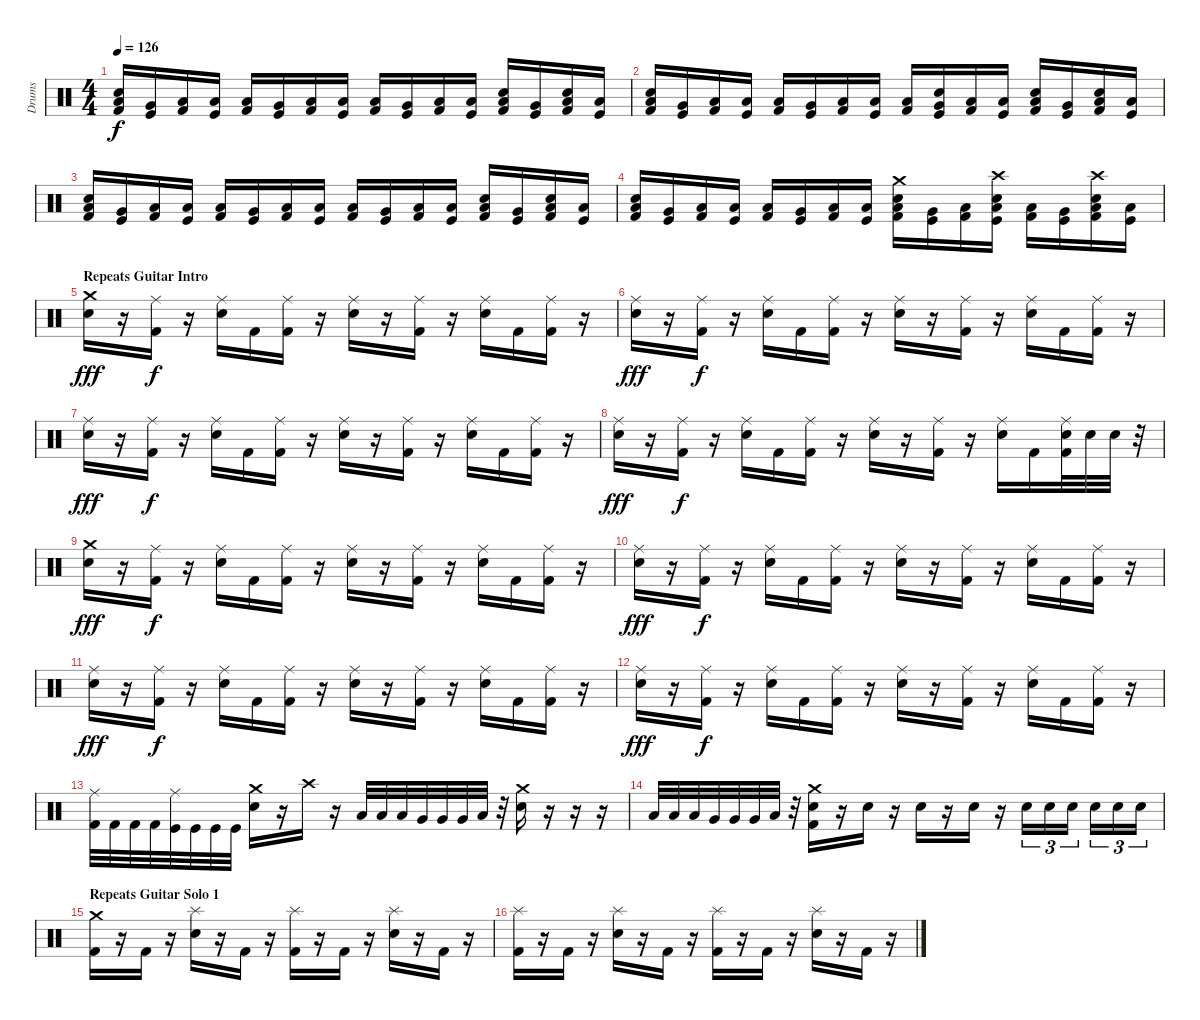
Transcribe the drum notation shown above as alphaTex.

\track ("Drums" "Drums") {instrument percussion}
\staff {score}
\articulation defaults
\ts (4 4)
\tempo 126
\clef neutral
\ks c
("Low Tom (hit)" "Snare (hit) 2" "Kick (hit) 2").16{dy f} ("Very Low Tom (hit)" "Kick (hit)").16 ("Low Floor Tom (hit)" "Kick (hit) 2").16 ("Low Floor Tom (hit)" "Kick (hit)").16 ("Low Tom (hit)" "Kick (hit) 2").16 ("Very Low Tom (hit)" "Kick (hit)").16 ("Low Floor Tom (hit)" "Kick (hit) 2").16 ("Low Floor Tom (hit)" "Kick (hit)").16 ("Low Tom (hit)" "Kick (hit) 2").16 ("Very Low Tom (hit)" "Kick (hit)").16 ("Low Floor Tom (hit)" "Kick (hit) 2").16 ("Low Floor Tom (hit)" "Kick (hit)").16 ("Low Tom (hit)" "Snare (hit) 2" "Kick (hit) 2").16 ("Very Low Tom (hit)" "Kick (hit)").16 ("Low Floor Tom (hit)" "Snare (hit) 2" "Kick (hit) 2").16 ("Low Floor Tom (hit)" "Kick (hit)").16 |
("Low Tom (hit)" "Snare (hit) 2" "Kick (hit) 2").16 ("Very Low Tom (hit)" "Kick (hit)").16 ("Low Floor Tom (hit)" "Kick (hit) 2").16 ("Low Floor Tom (hit)" "Kick (hit)").16 ("Low Tom (hit)" "Kick (hit) 2").16 ("Very Low Tom (hit)" "Kick (hit)").16 ("Low Floor Tom (hit)" "Kick (hit) 2").16 ("Low Floor Tom (hit)" "Kick (hit)").16 ("Low Tom (hit)" "Kick (hit) 2").16 ("Very Low Tom (hit)" "Snare (hit) 2" "Kick (hit)").16 ("Low Floor Tom (hit)" "Kick (hit) 2").16 ("Low Floor Tom (hit)" "Kick (hit)").16 ("Low Tom (hit)" "Snare (hit) 2" "Kick (hit) 2").16 ("Very Low Tom (hit)" "Kick (hit)").16 ("Low Floor Tom (hit)" "Snare (hit) 2" "Kick (hit) 2").16 ("Low Floor Tom (hit)" "Kick (hit)").16 |
("Low Tom (hit)" "Snare (hit) 2" "Kick (hit) 2").16 ("Very Low Tom (hit)" "Kick (hit)").16 ("Low Floor Tom (hit)" "Kick (hit) 2").16 ("Low Floor Tom (hit)" "Kick (hit)").16 ("Low Tom (hit)" "Kick (hit) 2").16 ("Very Low Tom (hit)" "Kick (hit)").16 ("Low Floor Tom (hit)" "Kick (hit) 2").16 ("Low Floor Tom (hit)" "Kick (hit)").16 ("Low Tom (hit)" "Kick (hit) 2").16 ("Very Low Tom (hit)" "Kick (hit)").16 ("Low Floor Tom (hit)" "Kick (hit) 2").16 ("Low Floor Tom (hit)" "Kick (hit)").16 ("Low Tom (hit)" "Snare (hit) 2" "Kick (hit) 2").16 ("Very Low Tom (hit)" "Kick (hit)").16 ("Low Floor Tom (hit)" "Snare (hit) 2" "Kick (hit) 2").16 ("Low Floor Tom (hit)" "Kick (hit)").16 |
("Low Tom (hit)" "Snare (hit) 2" "Kick (hit) 2").16 ("Very Low Tom (hit)" "Kick (hit)").16 ("Low Floor Tom (hit)" "Kick (hit) 2").16 ("Low Floor Tom (hit)" "Kick (hit)").16 ("Low Tom (hit)" "Kick (hit) 2").16 ("Very Low Tom (hit)" "Kick (hit)").16 ("Low Floor Tom (hit)" "Kick (hit) 2").16 ("Low Floor Tom (hit)" "Kick (hit)").16 ("Crash medium (hit)" "Low Tom (hit)" "Snare (hit) 2" "Kick (hit) 2").16 ("Very Low Tom (hit)" "Kick (hit)").16 ("Low Floor Tom (hit)" "Kick (hit) 2").16 ("Crash high (hit)" "Low Floor Tom (hit)" "Snare (hit) 2" "Kick (hit)").16 ("Low Tom (hit)" "Kick (hit) 2").16 ("Very Low Tom (hit)" "Kick (hit)").16 ("Crash high (hit)" "Low Floor Tom (hit)" "Snare (hit) 2" "Kick (hit) 2").16 ("Low Floor Tom (hit)" "Kick (hit)").16 |
\section ("" "Repeats Guitar Intro")
("Crash medium (hit)" "Snare (hit) 2").16{dy fff} r.16 ("Ride (middle)" "Kick (hit) 2").16{dy f} r.16 ("Ride (middle)" "Snare (hit) 2").16 "Kick (hit) 2".16 ("Ride (middle)" "Kick (hit) 2").16 r.16 ("Ride (middle)" "Snare (hit) 2").16 r.16 ("Ride (middle)" "Kick (hit) 2").16 r.16 ("Ride (middle)" "Snare (hit) 2").16 "Kick (hit) 2".16 ("Ride (middle)" "Kick (hit) 2").16 r.16 |
("Ride (middle)" "Snare (hit) 2").16{dy fff} r.16 ("Ride (middle)" "Kick (hit) 2").16{dy f} r.16 ("Ride (middle)" "Snare (hit) 2").16 "Kick (hit) 2".16 ("Ride (middle)" "Kick (hit) 2").16 r.16 ("Ride (middle)" "Snare (hit) 2").16 r.16 ("Ride (middle)" "Kick (hit) 2").16 r.16 ("Ride (middle)" "Snare (hit) 2").16 "Kick (hit) 2".16 ("Ride (middle)" "Kick (hit) 2").16 r.16 |
("Ride (middle)" "Snare (hit) 2").16{dy fff} r.16 ("Ride (middle)" "Kick (hit) 2").16{dy f} r.16 ("Ride (middle)" "Snare (hit) 2").16 "Kick (hit) 2".16 ("Ride (middle)" "Kick (hit) 2").16 r.16 ("Ride (middle)" "Snare (hit) 2").16 r.16 ("Ride (middle)" "Kick (hit) 2").16 r.16 ("Ride (middle)" "Snare (hit) 2").16 "Kick (hit) 2".16 ("Ride (middle)" "Kick (hit) 2").16 r.16 |
("Ride (middle)" "Snare (hit) 2").16{dy fff} r.16 ("Ride (middle)" "Kick (hit) 2").16{dy f} r.16 ("Ride (middle)" "Snare (hit) 2").16 "Kick (hit) 2".16 ("Ride (middle)" "Kick (hit) 2").16 r.16 ("Ride (middle)" "Snare (hit) 2").16 r.16 ("Ride (middle)" "Kick (hit) 2").16 r.16 ("Ride (middle)" "Snare (hit) 2").16 "Kick (hit) 2".16 ("Ride (middle)" "Snare (hit) 2" "Kick (hit) 2").32 "Snare (hit) 2".32 "Snare (hit) 2".32 r.32 |
("Crash medium (hit)" "Snare (hit) 2").16{dy fff} r.16 ("Ride (middle)" "Kick (hit) 2").16{dy f} r.16 ("Ride (middle)" "Snare (hit) 2").16 "Kick (hit) 2".16 ("Ride (middle)" "Kick (hit) 2").16 r.16 ("Ride (middle)" "Snare (hit) 2").16 r.16 ("Ride (middle)" "Kick (hit) 2").16 r.16 ("Ride (middle)" "Snare (hit) 2").16 "Kick (hit) 2".16 ("Ride (middle)" "Kick (hit) 2").16 r.16 |
("Ride (middle)" "Snare (hit) 2").16{dy fff} r.16 ("Ride (middle)" "Kick (hit) 2").16{dy f} r.16 ("Ride (middle)" "Snare (hit) 2").16 "Kick (hit) 2".16 ("Ride (middle)" "Kick (hit) 2").16 r.16 ("Ride (middle)" "Snare (hit) 2").16 r.16 ("Ride (middle)" "Kick (hit) 2").16 r.16 ("Ride (middle)" "Snare (hit) 2").16 "Kick (hit) 2".16 ("Ride (middle)" "Kick (hit) 2").16 r.16 |
("Ride (middle)" "Snare (hit) 2").16{dy fff} r.16 ("Ride (middle)" "Kick (hit) 2").16{dy f} r.16 ("Ride (middle)" "Snare (hit) 2").16 "Kick (hit) 2".16 ("Ride (middle)" "Kick (hit) 2").16 r.16 ("Ride (middle)" "Snare (hit) 2").16 r.16 ("Ride (middle)" "Kick (hit) 2").16 r.16 ("Ride (middle)" "Snare (hit) 2").16 "Kick (hit) 2".16 ("Ride (middle)" "Kick (hit) 2").16 r.16 |
("Ride (middle)" "Snare (hit) 2").16{dy fff} r.16 ("Ride (middle)" "Kick (hit) 2").16{dy f} r.16 ("Ride (middle)" "Snare (hit) 2").16 "Kick (hit) 2".16 ("Ride (middle)" "Kick (hit) 2").16 r.16 ("Ride (middle)" "Snare (hit) 2").16 r.16 ("Ride (middle)" "Kick (hit) 2").16 r.16 ("Ride (middle)" "Snare (hit) 2").16 "Kick (hit) 2".16 ("Ride (middle)" "Kick (hit) 2").16 r.16 |
("Ride (middle)" "Kick (hit) 2").32 "Kick (hit) 2".32 "Kick (hit) 2".32 "Kick (hit) 2".32 ("Ride (middle)" "Kick (hit)").32 "Kick (hit)".32 "Kick (hit)".32 "Kick (hit)".32 ("Crash medium (hit)" "Snare (hit) 2").16 r.16 "Crash high (hit)".16 r.16 "Low Tom (hit)".32 "Low Tom (hit)".32 "Low Tom (hit)".32 "Very Low Tom (hit)".32 "Very Low Tom (hit)".32 "Very Low Tom (hit)".32 "Low Floor Tom (hit)".32 r.32 ("Crash medium (hit)" "Snare (hit) 2").16 r.16 r.16 r.16 |
"Low Tom (hit)".32 "Low Tom (hit)".32 "Low Tom (hit)".32 "Very Low Tom (hit)".32 "Very Low Tom (hit)".32 "Very Low Tom (hit)".32 "Low Floor Tom (hit)".32 r.32 ("Crash medium (hit)" "Snare (hit) 2" "Kick (hit) 2").16 r.16 "Snare (hit) 2".16 r.16 "Snare (hit) 2".16 r.16 "Snare (hit) 2".16 r.16 "Snare (hit) 2".16{tu (3 2)} "Snare (hit) 2".16{tu (3 2)} "Snare (hit) 2".16{tu (3 2)} "Snare (hit) 2".16{tu (3 2)} "Snare (hit) 2".16{tu (3 2)} "Snare (hit) 2".16{tu (3 2)} |
\section ("" "Repeats Guitar Solo 1")
("Crash medium (hit)" "Kick (hit) 2").16 r.16 "Kick (hit) 2".16 r.16 ("Splash (hit)" "Snare (hit) 2").16 r.16 "Kick (hit) 2".16 r.16 ("Splash (hit)" "Kick (hit) 2").16 r.16 "Kick (hit) 2".16 r.16 ("Splash (hit)" "Snare (hit) 2").16 r.16 "Kick (hit) 2".16 r.16 |
("Splash (hit)" "Kick (hit) 2").16 r.16 "Kick (hit) 2".16 r.16 ("Splash (hit)" "Snare (hit) 2").16 r.16 "Kick (hit) 2".16 r.16 ("Splash (hit)" "Kick (hit) 2").16 r.16 "Kick (hit) 2".16 r.16 ("Splash (hit)" "Snare (hit) 2").16 r.16 "Kick (hit) 2".16 r.16
